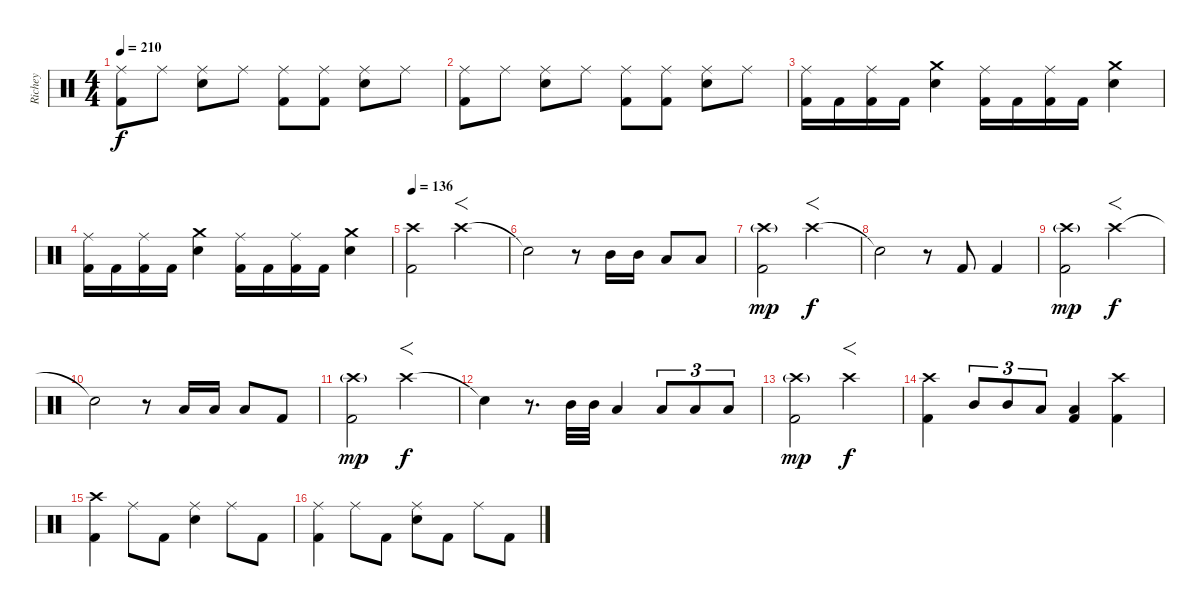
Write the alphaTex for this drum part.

\track ("Richey" "Richey") {instrument percussion}
\staff {score}
\articulation defaults
\ts (4 4)
\tempo 210
\clef neutral
\ks c
("Ride (middle)" "Kick (hit) 2").8{dy f} "Ride (middle)".8 ("Ride (middle)" "Snare (hit) 2").8 "Ride (middle)".8 ("Ride (middle)" "Kick (hit) 2").8 ("Ride (middle)" "Kick (hit) 2").8 ("Ride (middle)" "Snare (hit) 2").8 "Ride (middle)".8 |
("Ride (middle)" "Kick (hit) 2").8 "Ride (middle)".8 ("Ride (middle)" "Snare (hit) 2").8 "Ride (middle)".8 ("Ride (middle)" "Kick (hit) 2").8 ("Ride (middle)" "Kick (hit) 2").8 ("Ride (middle)" "Snare (hit) 2").8 "Ride (middle)".8 |
("Ride (middle)" "Kick (hit) 2").16 "Kick (hit) 2".16 ("Ride (middle)" "Kick (hit) 2").16 "Kick (hit) 2".16 ("Crash medium (hit)" "Snare (hit) 2").4 ("Ride (middle)" "Kick (hit) 2").16 "Kick (hit) 2".16 ("Ride (middle)" "Kick (hit) 2").16 "Kick (hit) 2".16 ("Crash medium (hit)" "Snare (hit) 2").4 |
("Ride (middle)" "Kick (hit) 2").16 "Kick (hit) 2".16 ("Ride (middle)" "Kick (hit) 2").16 "Kick (hit) 2".16 ("Crash medium (hit)" "Snare (hit) 2").4 ("Ride (middle)" "Kick (hit) 2").16 "Kick (hit) 2".16 ("Ride (middle)" "Kick (hit) 2").16 "Kick (hit) 2".16 ("Crash medium (hit)" "Snare (hit) 2").4 |
\tempo 136
("Crash high (hit)" "Kick (hit) 2").2 "Crash high (hit)".2{f} |
"Snare (hit)"{t}.2 r.8 "Mid Tom (hit)".16 "Mid Tom (hit)".16 "Low Tom (hit)".8 "Low Tom (hit)".8 |
("Crash high (hit)"{g} "Kick (hit) 2").2{dy mp} "Crash high (hit)".2{f dy f} |
"Snare (hit)"{t}.2 r.8 "Kick (hit) 2".8 "Kick (hit) 2".4 |
("Crash high (hit)"{g} "Kick (hit) 2").2{dy mp} "Crash high (hit)".2{f dy f} |
"Snare (hit)"{t}.2 r.8 "Low Tom (hit)".16 "Low Tom (hit)".16 "Low Tom (hit)".8 "Kick (hit) 2".8 |
("Crash high (hit)"{g} "Kick (hit) 2").2{dy mp} "Crash high (hit)".2{f dy f} |
"Snare (hit)"{t}.4 r.8{d} "Mid Tom (hit)".32 "Mid Tom (hit)".32 "Low Tom (hit)".4 "Low Tom (hit)".8{tu (3 2)} "Low Tom (hit)".8{tu (3 2)} "Low Tom (hit)".8{tu (3 2)} |
("Crash high (hit)"{g} "Kick (hit) 2").2{dy mp} "Crash high (hit)".2{f dy f} |
("Crash high (hit)" "Kick (hit) 2").4 "Mid Tom (hit)".8{tu (3 2)} "Mid Tom (hit)".8{tu (3 2)} "Low Tom (hit)".8{tu (3 2)} ("Low Tom (hit)" "Kick (hit) 2").4 ("Crash high (hit)" "Kick (hit) 2").4 |
("Crash high (hit)" "Kick (hit) 2").4 "Ride (middle)".8 "Kick (hit) 2".8 ("Ride (middle)" "Snare (hit) 2").4 "Ride (middle)".8 "Kick (hit) 2".8 |
("Ride (middle)" "Kick (hit) 2").4 "Ride (middle)".8 "Kick (hit) 2".8 ("Ride (middle)" "Snare (hit) 2").8 "Kick (hit) 2".8 "Ride (middle)".8 "Kick (hit) 2".8
